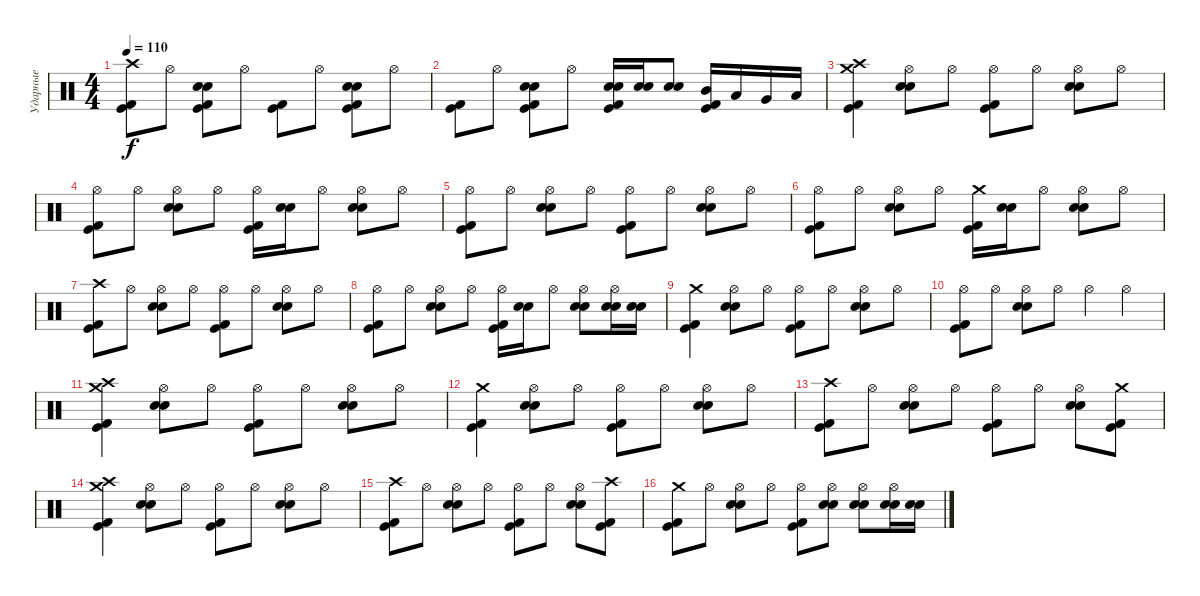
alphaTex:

\track ("Ударные" "Ударные") {instrument percussion}
\staff {score}
\articulation defaults
\ts (4 4)
\tempo 110
\clef neutral
\ks c
("Crash high (hit)" "Kick (hit) 2" "Kick (hit)").8{dy f} "Hi-Hat (open)".8 ("Snare (hit) 2" "Electric Snare (hit)" "Kick (hit)" "Kick (hit) 2").8 "Hi-Hat (open)".8 ("Kick (hit) 2" "Kick (hit)").8 "Hi-Hat (open)".8 ("Snare (hit) 2" "Electric Snare (hit)" "Kick (hit)" "Kick (hit) 2").8 "Hi-Hat (open)".8 |
("Kick (hit) 2" "Kick (hit)").8 "Hi-Hat (open)".8 ("Snare (hit) 2" "Electric Snare (hit)" "Kick (hit)" "Kick (hit) 2").8 "Hi-Hat (open)".8 ("Snare (hit) 2" "Electric Snare (hit)" "Kick (hit)" "Kick (hit) 2").16 ("Snare (hit) 2" "Electric Snare (hit)").16 ("Snare (hit) 2" "Electric Snare (hit)").8 ("Mid Tom (hit)" "Kick (hit)" "Kick (hit) 2").16 "Low Tom (hit)".16 "Very Low Tom (hit)".16 "Low Floor Tom (hit)".16 |
("Crash high (hit)" "Kick (hit) 2" "Crash medium (hit)" "Kick (hit)").4 ("Hi-Hat (open)" "Snare (hit) 2" "Electric Snare (hit)").8 "Hi-Hat (open)".8 ("Hi-Hat (open)" "Kick (hit) 2" "Kick (hit)").8 "Hi-Hat (open)".8 ("Hi-Hat (open)" "Snare (hit) 2" "Electric Snare (hit)").8 "Hi-Hat (open)".8 |
("Hi-Hat (open)" "Kick (hit) 2" "Kick (hit)").8 "Hi-Hat (open)".8 ("Hi-Hat (open)" "Snare (hit) 2" "Electric Snare (hit)").8 "Hi-Hat (open)".8 ("Hi-Hat (open)" "Kick (hit) 2" "Kick (hit)").16 ("Snare (hit) 2" "Electric Snare (hit)").16 "Hi-Hat (open)".8 ("Hi-Hat (open)" "Snare (hit) 2" "Electric Snare (hit)").8 "Hi-Hat (open)".8 |
("Hi-Hat (open)" "Kick (hit)" "Kick (hit) 2").8 "Hi-Hat (open)".8 ("Hi-Hat (open)" "Snare (hit) 2" "Electric Snare (hit)").8 "Hi-Hat (open)".8 ("Hi-Hat (open)" "Kick (hit) 2" "Kick (hit)").8 "Hi-Hat (open)".8 ("Hi-Hat (open)" "Snare (hit) 2" "Electric Snare (hit)").8 "Hi-Hat (open)".8 |
("Hi-Hat (open)" "Kick (hit) 2" "Kick (hit)").8 "Hi-Hat (open)".8 ("Hi-Hat (open)" "Snare (hit) 2" "Electric Snare (hit)").8 "Hi-Hat (open)".8 ("Crash medium (hit)" "Kick (hit) 2" "Kick (hit)").16 ("Snare (hit) 2" "Electric Snare (hit)").16 "Hi-Hat (open)".8 ("Hi-Hat (open)" "Snare (hit) 2" "Electric Snare (hit)").8 "Hi-Hat (open)".8 |
("Crash high (hit)" "Kick (hit)" "Kick (hit) 2").8 "Hi-Hat (open)".8 ("Hi-Hat (open)" "Snare (hit) 2" "Electric Snare (hit)").8 "Hi-Hat (open)".8 ("Hi-Hat (open)" "Kick (hit) 2" "Kick (hit)").8 "Hi-Hat (open)".8 ("Hi-Hat (open)" "Snare (hit) 2" "Electric Snare (hit)").8 "Hi-Hat (open)".8 |
("Hi-Hat (open)" "Kick (hit) 2" "Kick (hit)").8 "Hi-Hat (open)".8 ("Hi-Hat (open)" "Snare (hit) 2" "Electric Snare (hit)").8 "Hi-Hat (open)".8 ("Hi-Hat (open)" "Kick (hit) 2" "Kick (hit)").16 ("Snare (hit) 2" "Electric Snare (hit)").16 "Hi-Hat (open)".8 ("Hi-Hat (open)" "Snare (hit) 2" "Electric Snare (hit)").8 ("Hi-Hat (open)" "Snare (hit) 2" "Electric Snare (hit)").16 ("Snare (hit) 2" "Electric Snare (hit)").16 |
("Crash medium (hit)" "Kick (hit)" "Kick (hit) 2").4 ("Hi-Hat (open)" "Snare (hit) 2" "Electric Snare (hit)").8 "Hi-Hat (open)".8 ("Hi-Hat (open)" "Kick (hit) 2" "Kick (hit)").8 "Hi-Hat (open)".8 ("Hi-Hat (open)" "Snare (hit) 2" "Electric Snare (hit)").8 "Hi-Hat (open)".8 |
("Hi-Hat (open)" "Kick (hit) 2" "Kick (hit)").8 "Hi-Hat (open)".8 ("Hi-Hat (open)" "Snare (hit) 2" "Electric Snare (hit)").8 "Hi-Hat (open)".8 "Hi-Hat (open)".4 "Hi-Hat (open)".4 |
("Crash high (hit)" "Kick (hit) 2" "Kick (hit)" "Crash medium (hit)").4 ("Hi-Hat (open)" "Snare (hit) 2" "Electric Snare (hit)").8 "Hi-Hat (open)".8 ("Hi-Hat (open)" "Kick (hit) 2" "Kick (hit)").8 "Hi-Hat (open)".8 ("Hi-Hat (open)" "Snare (hit) 2" "Electric Snare (hit)").8 "Hi-Hat (open)".8 |
("Crash medium (hit)" "Kick (hit) 2" "Kick (hit)").4 ("Hi-Hat (open)" "Snare (hit) 2" "Electric Snare (hit)").8 "Hi-Hat (open)".8 ("Hi-Hat (open)" "Kick (hit) 2" "Kick (hit)").8 "Hi-Hat (open)".8 ("Hi-Hat (open)" "Snare (hit) 2" "Electric Snare (hit)").8 "Hi-Hat (open)".8 |
("Crash high (hit)" "Kick (hit) 2" "Kick (hit)").8 "Hi-Hat (open)".8 ("Hi-Hat (open)" "Snare (hit) 2" "Electric Snare (hit)").8 "Hi-Hat (open)".8 ("Hi-Hat (open)" "Kick (hit) 2" "Kick (hit)").8 "Hi-Hat (open)".8 ("Hi-Hat (open)" "Snare (hit) 2" "Electric Snare (hit)").8 ("Crash medium (hit)" "Kick (hit)" "Kick (hit) 2").8 |
("Crash high (hit)" "Kick (hit) 2" "Kick (hit)" "Crash medium (hit)").4 ("Hi-Hat (open)" "Snare (hit) 2" "Electric Snare (hit)").8 "Hi-Hat (open)".8 ("Hi-Hat (open)" "Kick (hit) 2" "Kick (hit)").8 "Hi-Hat (open)".8 ("Hi-Hat (open)" "Snare (hit) 2" "Electric Snare (hit)").8 "Hi-Hat (open)".8 |
("Crash high (hit)" "Kick (hit) 2" "Kick (hit)").8 "Hi-Hat (open)".8 ("Hi-Hat (open)" "Snare (hit) 2" "Electric Snare (hit)").8 "Hi-Hat (open)".8 ("Hi-Hat (open)" "Kick (hit) 2" "Kick (hit)").8 "Hi-Hat (open)".8 ("Hi-Hat (open)" "Snare (hit) 2" "Electric Snare (hit)").8 ("Crash high (hit)" "Kick (hit) 2" "Kick (hit)").8 |
("Crash medium (hit)" "Kick (hit) 2" "Kick (hit)").8 "Hi-Hat (open)".8 ("Hi-Hat (open)" "Snare (hit) 2" "Electric Snare (hit)").8 "Hi-Hat (open)".8 ("Hi-Hat (open)" "Kick (hit) 2" "Kick (hit)").8 ("Hi-Hat (open)" "Snare (hit) 2" "Electric Snare (hit)").8 ("Hi-Hat (open)" "Snare (hit) 2" "Electric Snare (hit)").8 ("Hi-Hat (open)" "Snare (hit) 2" "Electric Snare (hit)").16 ("Snare (hit) 2" "Electric Snare (hit)").16
